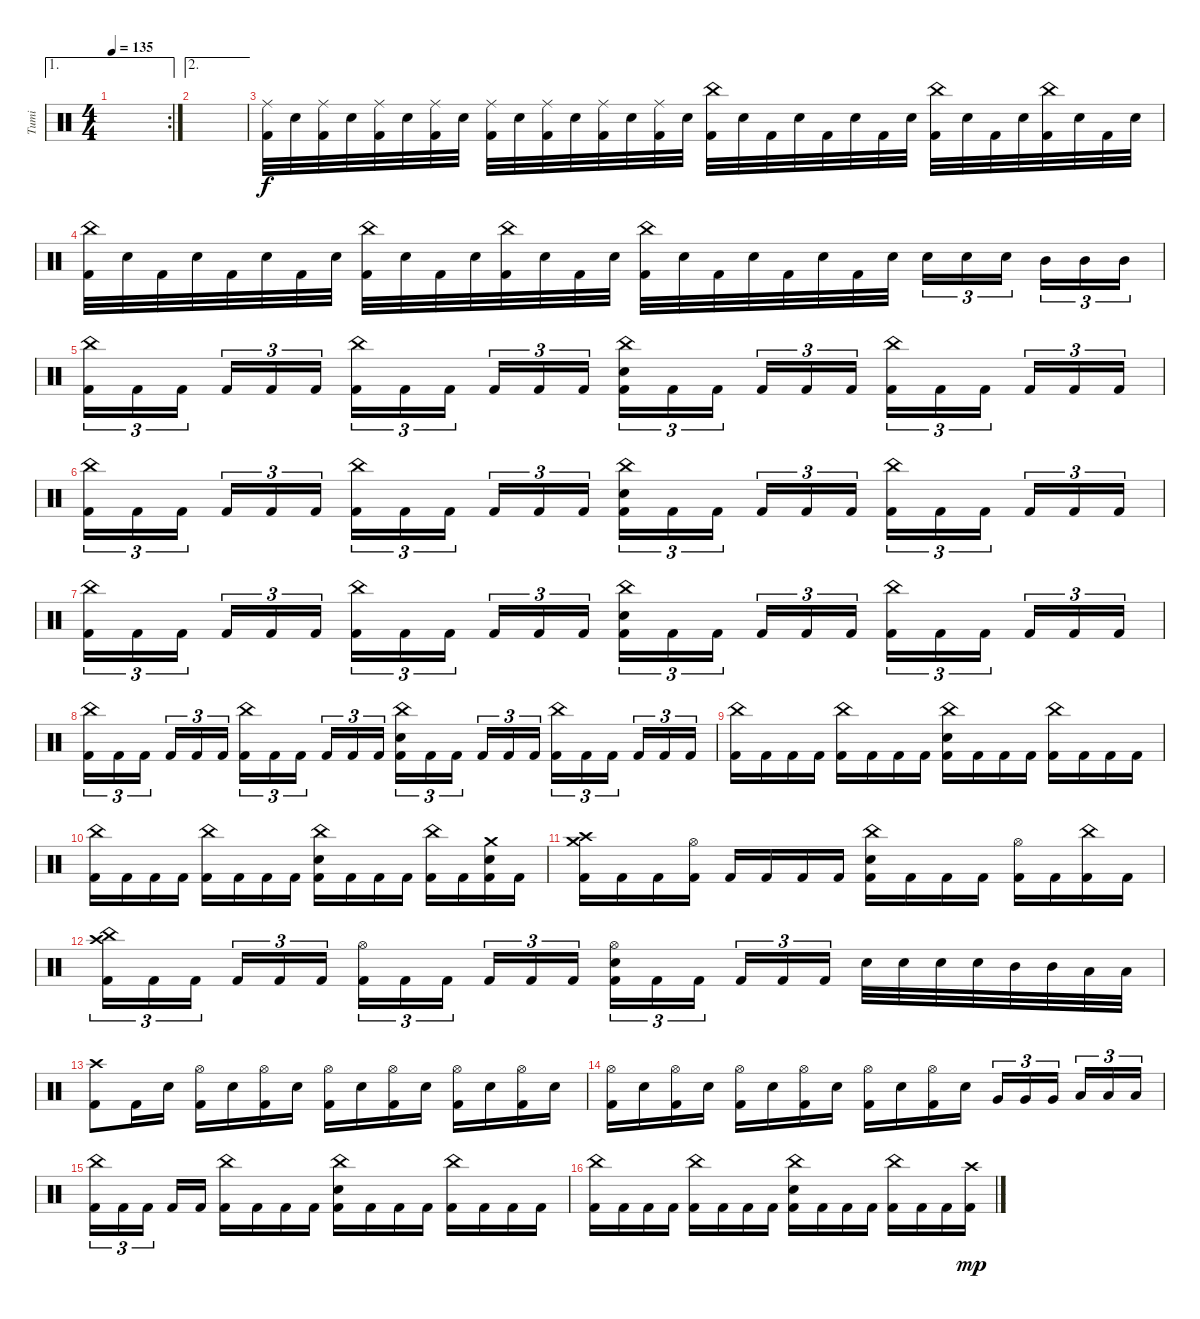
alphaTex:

\track ("Tumi" "Tumi") {instrument percussion}
\staff {score}
\articulation defaults
\ae 1
\rc 2
\ts (4 4)
\tempo 135
\clef neutral
\ks c
|
\ae 2
|
("Kick (hit) 2" "Ride (middle)").32 "Electric Snare (hit)".32 ("Kick (hit) 2" "Ride (middle)").32 "Electric Snare (hit)".32 ("Kick (hit) 2" "Ride (middle)").32 "Electric Snare (hit)".32 ("Kick (hit) 2" "Ride (middle)").32 "Electric Snare (hit)".32 ("Kick (hit) 2" "Ride (middle)").32 "Electric Snare (hit)".32 ("Kick (hit) 2" "Ride (middle)").32 "Electric Snare (hit)".32 ("Kick (hit) 2" "Ride (middle)").32 "Electric Snare (hit)".32 ("Kick (hit) 2" "Ride (middle)").32 "Electric Snare (hit)".32 ("China (hit)" "Kick (hit) 2").32 "Electric Snare (hit)".32 "Kick (hit) 2".32 "Electric Snare (hit)".32 "Kick (hit) 2".32 "Electric Snare (hit)".32 "Kick (hit) 2".32 "Electric Snare (hit)".32 ("China (hit)" "Kick (hit) 2").32 "Electric Snare (hit)".32 "Kick (hit) 2".32 "Electric Snare (hit)".32 ("China (hit)" "Kick (hit) 2").32 "Electric Snare (hit)".32 "Kick (hit) 2".32 "Electric Snare (hit)".32 |
("China (hit)" "Kick (hit) 2").32 "Electric Snare (hit)".32 "Kick (hit) 2".32 "Electric Snare (hit)".32 "Kick (hit) 2".32 "Electric Snare (hit)".32 "Kick (hit) 2".32 "Electric Snare (hit)".32 ("China (hit)" "Kick (hit) 2").32 "Electric Snare (hit)".32 "Kick (hit) 2".32 "Electric Snare (hit)".32 ("China (hit)" "Kick (hit) 2").32 "Electric Snare (hit)".32 "Kick (hit) 2".32 "Electric Snare (hit)".32 ("China (hit)" "Kick (hit) 2").32 "Electric Snare (hit)".32 "Kick (hit) 2".32 "Electric Snare (hit)".32 "Kick (hit) 2".32 "Electric Snare (hit)".32 "Kick (hit) 2".32 "Electric Snare (hit)".32 "Electric Snare (hit)".16{tu (3 2)} "Electric Snare (hit)".16{tu (3 2)} "Electric Snare (hit)".16{tu (3 2) beam splitsecondary} "Mid Tom (hit)".16{tu (3 2)} "Mid Tom (hit)".16{tu (3 2)} "Mid Tom (hit)".16{tu (3 2)} |
("China (hit)" "Kick (hit) 2").16{tu (3 2)} "Kick (hit) 2".16{tu (3 2)} "Kick (hit) 2".16{tu (3 2) beam splitsecondary} "Kick (hit) 2".16{tu (3 2)} "Kick (hit) 2".16{tu (3 2)} "Kick (hit) 2".16{tu (3 2)} ("China (hit)" "Kick (hit) 2").16{tu (3 2)} "Kick (hit) 2".16{tu (3 2)} "Kick (hit) 2".16{tu (3 2) beam splitsecondary} "Kick (hit) 2".16{tu (3 2)} "Kick (hit) 2".16{tu (3 2)} "Kick (hit) 2".16{tu (3 2)} ("China (hit)" "Electric Snare (hit)" "Kick (hit) 2").16{tu (3 2)} "Kick (hit) 2".16{tu (3 2)} "Kick (hit) 2".16{tu (3 2) beam splitsecondary} "Kick (hit) 2".16{tu (3 2)} "Kick (hit) 2".16{tu (3 2)} "Kick (hit) 2".16{tu (3 2)} ("China (hit)" "Kick (hit) 2").16{tu (3 2)} "Kick (hit) 2".16{tu (3 2)} "Kick (hit) 2".16{tu (3 2) beam splitsecondary} "Kick (hit) 2".16{tu (3 2)} "Kick (hit) 2".16{tu (3 2)} "Kick (hit) 2".16{tu (3 2)} |
("China (hit)" "Kick (hit) 2").16{tu (3 2)} "Kick (hit) 2".16{tu (3 2)} "Kick (hit) 2".16{tu (3 2) beam splitsecondary} "Kick (hit) 2".16{tu (3 2)} "Kick (hit) 2".16{tu (3 2)} "Kick (hit) 2".16{tu (3 2)} ("China (hit)" "Kick (hit) 2").16{tu (3 2)} "Kick (hit) 2".16{tu (3 2)} "Kick (hit) 2".16{tu (3 2) beam splitsecondary} "Kick (hit) 2".16{tu (3 2)} "Kick (hit) 2".16{tu (3 2)} "Kick (hit) 2".16{tu (3 2)} ("China (hit)" "Electric Snare (hit)" "Kick (hit) 2").16{tu (3 2)} "Kick (hit) 2".16{tu (3 2)} "Kick (hit) 2".16{tu (3 2) beam splitsecondary} "Kick (hit) 2".16{tu (3 2)} "Kick (hit) 2".16{tu (3 2)} "Kick (hit) 2".16{tu (3 2)} ("China (hit)" "Kick (hit) 2").16{tu (3 2)} "Kick (hit) 2".16{tu (3 2)} "Kick (hit) 2".16{tu (3 2) beam splitsecondary} "Kick (hit) 2".16{tu (3 2)} "Kick (hit) 2".16{tu (3 2)} "Kick (hit) 2".16{tu (3 2)} |
("China (hit)" "Kick (hit) 2").16{tu (3 2)} "Kick (hit) 2".16{tu (3 2)} "Kick (hit) 2".16{tu (3 2) beam splitsecondary} "Kick (hit) 2".16{tu (3 2)} "Kick (hit) 2".16{tu (3 2)} "Kick (hit) 2".16{tu (3 2)} ("China (hit)" "Kick (hit) 2").16{tu (3 2)} "Kick (hit) 2".16{tu (3 2)} "Kick (hit) 2".16{tu (3 2) beam splitsecondary} "Kick (hit) 2".16{tu (3 2)} "Kick (hit) 2".16{tu (3 2)} "Kick (hit) 2".16{tu (3 2)} ("China (hit)" "Electric Snare (hit)" "Kick (hit) 2").16{tu (3 2)} "Kick (hit) 2".16{tu (3 2)} "Kick (hit) 2".16{tu (3 2) beam splitsecondary} "Kick (hit) 2".16{tu (3 2)} "Kick (hit) 2".16{tu (3 2)} "Kick (hit) 2".16{tu (3 2)} ("China (hit)" "Kick (hit) 2").16{tu (3 2)} "Kick (hit) 2".16{tu (3 2)} "Kick (hit) 2".16{tu (3 2) beam splitsecondary} "Kick (hit) 2".16{tu (3 2)} "Kick (hit) 2".16{tu (3 2)} "Kick (hit) 2".16{tu (3 2)} |
("China (hit)" "Kick (hit) 2").16{tu (3 2)} "Kick (hit) 2".16{tu (3 2)} "Kick (hit) 2".16{tu (3 2) beam splitsecondary} "Kick (hit) 2".16{tu (3 2)} "Kick (hit) 2".16{tu (3 2)} "Kick (hit) 2".16{tu (3 2)} ("China (hit)" "Kick (hit) 2").16{tu (3 2)} "Kick (hit) 2".16{tu (3 2)} "Kick (hit) 2".16{tu (3 2) beam splitsecondary} "Kick (hit) 2".16{tu (3 2)} "Kick (hit) 2".16{tu (3 2)} "Kick (hit) 2".16{tu (3 2)} ("China (hit)" "Electric Snare (hit)" "Kick (hit) 2").16{tu (3 2)} "Kick (hit) 2".16{tu (3 2)} "Kick (hit) 2".16{tu (3 2) beam splitsecondary} "Kick (hit) 2".16{tu (3 2)} "Kick (hit) 2".16{tu (3 2)} "Kick (hit) 2".16{tu (3 2)} ("China (hit)" "Kick (hit) 2").16{tu (3 2)} "Kick (hit) 2".16{tu (3 2)} "Kick (hit) 2".16{tu (3 2) beam splitsecondary} "Kick (hit) 2".16{tu (3 2)} "Kick (hit) 2".16{tu (3 2)} "Kick (hit) 2".16{tu (3 2)} |
("China (hit)" "Kick (hit) 2").16 "Kick (hit) 2".16 "Kick (hit) 2".16 "Kick (hit) 2".16 ("China (hit)" "Kick (hit) 2").16 "Kick (hit) 2".16 "Kick (hit) 2".16 "Kick (hit) 2".16 ("China (hit)" "Electric Snare (hit)" "Kick (hit) 2").16 "Kick (hit) 2".16 "Kick (hit) 2".16 "Kick (hit) 2".16 ("China (hit)" "Kick (hit) 2").16 "Kick (hit) 2".16 "Kick (hit) 2".16 "Kick (hit) 2".16 |
("China (hit)" "Kick (hit) 2").16 "Kick (hit) 2".16 "Kick (hit) 2".16 "Kick (hit) 2".16 ("China (hit)" "Kick (hit) 2").16 "Kick (hit) 2".16 "Kick (hit) 2".16 "Kick (hit) 2".16 ("China (hit)" "Electric Snare (hit)" "Kick (hit) 2").16 "Kick (hit) 2".16 "Kick (hit) 2".16 "Kick (hit) 2".16 ("China (hit)" "Kick (hit) 2").16 "Kick (hit) 2".16 ("Crash medium (hit)" "Electric Snare (hit)" "Kick (hit) 2").16 "Kick (hit) 2".16 |
("Crash high (hit)" "Crash medium (hit)" "Kick (hit) 2").16 "Kick (hit) 2".16 "Kick (hit) 2".16 ("Hi-Hat (open)" "Kick (hit) 2").16 "Kick (hit) 2".16 "Kick (hit) 2".16 "Kick (hit) 2".16 "Kick (hit) 2".16 ("China (hit)" "Electric Snare (hit)" "Kick (hit) 2").16 "Kick (hit) 2".16 "Kick (hit) 2".16 "Kick (hit) 2".16 ("Hi-Hat (open)" "Kick (hit) 2").16 "Kick (hit) 2".16 ("China (hit)" "Kick (hit) 2").16 "Kick (hit) 2".16 |
("China (hit)" "Crash high (hit)" "Kick (hit) 2").16{tu (3 2)} "Kick (hit) 2".16{tu (3 2)} "Kick (hit) 2".16{tu (3 2) beam splitsecondary} "Kick (hit) 2".16{tu (3 2)} "Kick (hit) 2".16{tu (3 2)} "Kick (hit) 2".16{tu (3 2)} ("Hi-Hat (open)" "Kick (hit) 2").16{tu (3 2)} "Kick (hit) 2".16{tu (3 2)} "Kick (hit) 2".16{tu (3 2) beam splitsecondary} "Kick (hit) 2".16{tu (3 2)} "Kick (hit) 2".16{tu (3 2)} "Kick (hit) 2".16{tu (3 2)} ("Hi-Hat (open)" "Electric Snare (hit)" "Kick (hit) 2").16{tu (3 2)} "Kick (hit) 2".16{tu (3 2)} "Kick (hit) 2".16{tu (3 2) beam splitsecondary} "Kick (hit) 2".16{tu (3 2)} "Kick (hit) 2".16{tu (3 2)} "Kick (hit) 2".16{tu (3 2)} "Electric Snare (hit)".32 "Electric Snare (hit)".32 "Electric Snare (hit)".32 "Electric Snare (hit)".32 "Mid Tom (hit)".32 "Mid Tom (hit)".32 "Low Tom (hit)".32 "Low Tom (hit)".32 |
("Crash high (hit)" "Kick (hit) 2").8 "Kick (hit) 2".16 "Electric Snare (hit)".16 ("Hi-Hat (open)" "Kick (hit) 2").16 "Electric Snare (hit)".16 ("Hi-Hat (open)" "Kick (hit) 2").16 "Electric Snare (hit)".16 ("Hi-Hat (open)" "Kick (hit) 2").16 "Electric Snare (hit)".16 ("Hi-Hat (open)" "Kick (hit) 2").16 "Electric Snare (hit)".16 ("Hi-Hat (open)" "Kick (hit) 2").16 "Electric Snare (hit)".16 ("Hi-Hat (open)" "Kick (hit) 2").16 "Electric Snare (hit)".16 |
("Hi-Hat (open)" "Kick (hit) 2").16 "Electric Snare (hit)".16 ("Hi-Hat (open)" "Kick (hit) 2").16 "Electric Snare (hit)".16 ("Hi-Hat (open)" "Kick (hit) 2").16 "Electric Snare (hit)".16 ("Hi-Hat (open)" "Kick (hit) 2").16 "Electric Snare (hit)".16 ("Hi-Hat (open)" "Kick (hit) 2").16 "Electric Snare (hit)".16 ("Hi-Hat (open)" "Kick (hit) 2").16 "Electric Snare (hit)".16 "Very Low Tom (hit)".16{tu (3 2)} "Very Low Tom (hit)".16{tu (3 2)} "Very Low Tom (hit)".16{tu (3 2) beam splitsecondary} "Low Floor Tom (hit)".16{tu (3 2)} "Low Floor Tom (hit)".16{tu (3 2)} "Low Floor Tom (hit)".16{tu (3 2)} |
("China (hit)" "Kick (hit) 2").16{tu (3 2)} "Kick (hit) 2".16{tu (3 2)} "Kick (hit) 2".16{tu (3 2) beam splitsecondary} "Kick (hit) 2".16 "Kick (hit) 2".16 ("China (hit)" "Kick (hit) 2").16 "Kick (hit) 2".16 "Kick (hit) 2".16 "Kick (hit) 2".16 ("China (hit)" "Electric Snare (hit)" "Kick (hit) 2").16 "Kick (hit) 2".16 "Kick (hit) 2".16 "Kick (hit) 2".16 ("China (hit)" "Kick (hit) 2").16 "Kick (hit) 2".16 "Kick (hit) 2".16 "Kick (hit) 2".16 |
("China (hit)" "Kick (hit) 2").16 "Kick (hit) 2".16 "Kick (hit) 2".16 "Kick (hit) 2".16 ("China (hit)" "Kick (hit) 2").16 "Kick (hit) 2".16 "Kick (hit) 2".16 "Kick (hit) 2".16 ("China (hit)" "Electric Snare (hit)" "Kick (hit) 2").16 "Kick (hit) 2".16 "Kick (hit) 2".16 "Kick (hit) 2".16 ("China (hit)" "Kick (hit) 2").16 "Kick (hit) 2".16 "Kick (hit) 2".16 ("Crash high (hit)" "Kick (hit) 2").16{dy mp}
